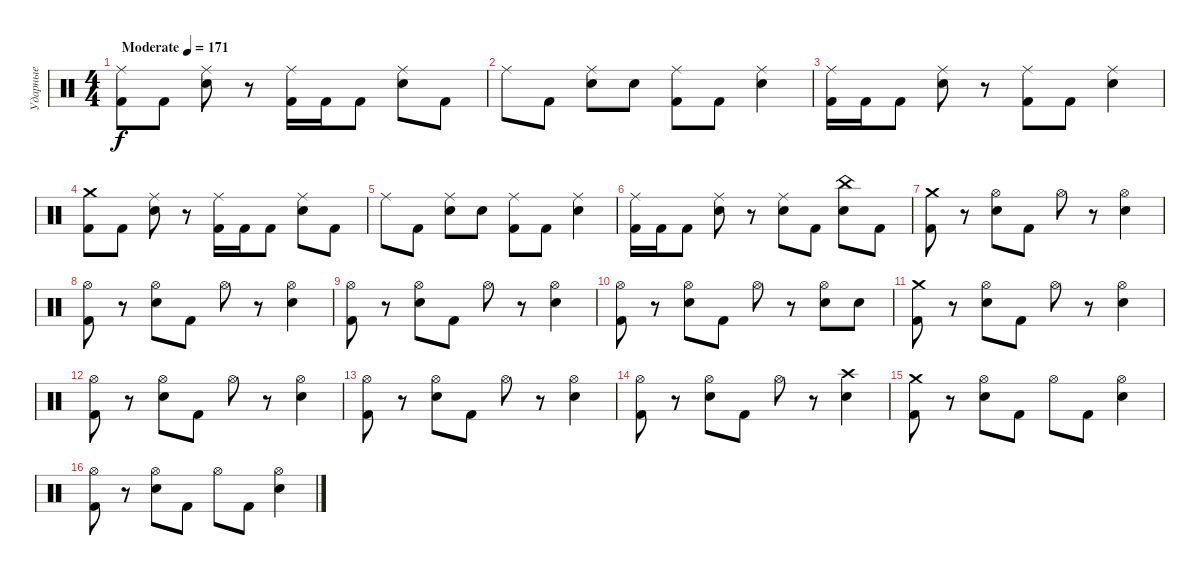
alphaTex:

\track ("Ударные" "Ударные") {instrument percussion}
\staff {score}
\articulation defaults
\ts (4 4)
\tempo (171 "Moderate")
\clef neutral
\ks c
("Ride (middle)" "Kick (hit) 2").8{dy f} "Kick (hit) 2".8 ("Ride (middle)" "Electric Snare (hit)").8 r.8 ("Ride (middle)" "Kick (hit) 2").16 "Kick (hit) 2".16 "Kick (hit) 2".8 ("Ride (middle)" "Electric Snare (hit)").8 "Kick (hit) 2".8 |
"Ride (middle)".8 "Kick (hit) 2".8 ("Ride (middle)" "Electric Snare (hit)").8 "Electric Snare (hit)".8 ("Ride (middle)" "Kick (hit) 2").8 "Kick (hit) 2".8 ("Ride (middle)" "Electric Snare (hit)").4 |
("Ride (middle)" "Kick (hit) 2").16 "Kick (hit) 2".16 "Kick (hit) 2".8 ("Ride (middle)" "Electric Snare (hit)").8 r.8 ("Ride (middle)" "Kick (hit) 2").8 "Kick (hit) 2".8 ("Ride (middle)" "Electric Snare (hit)").4 |
("Crash medium (hit)" "Kick (hit) 2").8 "Kick (hit) 2".8 ("Ride (middle)" "Electric Snare (hit)").8 r.8 ("Ride (middle)" "Kick (hit) 2").16 "Kick (hit) 2".16 "Kick (hit) 2".8 ("Ride (middle)" "Electric Snare (hit)").8 "Kick (hit) 2".8 |
"Ride (middle)".8 "Kick (hit) 2".8 ("Ride (middle)" "Electric Snare (hit)").8 "Electric Snare (hit)".8 ("Ride (middle)" "Kick (hit) 2").8 "Kick (hit) 2".8 ("Ride (middle)" "Electric Snare (hit)").4 |
("Ride (middle)" "Kick (hit) 2").16 "Kick (hit) 2".16 "Kick (hit) 2".8 ("Ride (middle)" "Electric Snare (hit)").8 r.8 ("Ride (middle)" "Electric Snare (hit)").8 "Kick (hit) 2".8 ("China (hit)" "Electric Snare (hit)").8 "Kick (hit) 2".8 |
("Crash medium (hit)" "Kick (hit) 2").8 r.8 ("Hi-Hat (open)" "Electric Snare (hit)").8 "Kick (hit) 2".8 "Hi-Hat (open)".8 r.8 ("Hi-Hat (open)" "Electric Snare (hit)").4 |
("Hi-Hat (open)" "Kick (hit) 2").8 r.8 ("Hi-Hat (open)" "Electric Snare (hit)").8 "Kick (hit) 2".8 "Hi-Hat (open)".8 r.8 ("Hi-Hat (open)" "Electric Snare (hit)").4 |
("Hi-Hat (open)" "Kick (hit) 2").8 r.8 ("Hi-Hat (open)" "Electric Snare (hit)").8 "Kick (hit) 2".8 "Hi-Hat (open)".8 r.8 ("Hi-Hat (open)" "Electric Snare (hit)").4 |
("Hi-Hat (open)" "Kick (hit) 2").8 r.8 ("Hi-Hat (open)" "Electric Snare (hit)").8 "Kick (hit) 2".8 "Hi-Hat (open)".8 r.8 ("Hi-Hat (open)" "Electric Snare (hit)").8 "Electric Snare (hit)".8 |
("Crash medium (hit)" "Kick (hit) 2").8 r.8 ("Hi-Hat (open)" "Electric Snare (hit)").8 "Kick (hit) 2".8 "Hi-Hat (open)".8 r.8 ("Hi-Hat (open)" "Electric Snare (hit)").4 |
("Hi-Hat (open)" "Kick (hit) 2").8 r.8 ("Hi-Hat (open)" "Electric Snare (hit)").8 "Kick (hit) 2".8 "Hi-Hat (open)".8 r.8 ("Hi-Hat (open)" "Electric Snare (hit)").4 |
("Hi-Hat (open)" "Kick (hit) 2").8 r.8 ("Hi-Hat (open)" "Electric Snare (hit)").8 "Kick (hit) 2".8 "Hi-Hat (open)".8 r.8 ("Hi-Hat (open)" "Electric Snare (hit)").4 |
("Hi-Hat (open)" "Kick (hit) 2").8 r.8 ("Hi-Hat (open)" "Electric Snare (hit)").8 "Kick (hit) 2".8 "Hi-Hat (open)".8 r.8 ("Crash high (hit)" "Electric Snare (hit)").4 |
("Crash medium (hit)" "Kick (hit) 2").8 r.8 ("Hi-Hat (open)" "Electric Snare (hit)").8 "Kick (hit) 2".8 "Hi-Hat (open)".8 "Kick (hit) 2".8 ("Hi-Hat (open)" "Electric Snare (hit)").4 |
("Hi-Hat (open)" "Kick (hit) 2").8 r.8 ("Hi-Hat (open)" "Electric Snare (hit)").8 "Kick (hit) 2".8 "Hi-Hat (open)".8 "Kick (hit) 2".8 ("Hi-Hat (open)" "Electric Snare (hit)").4
